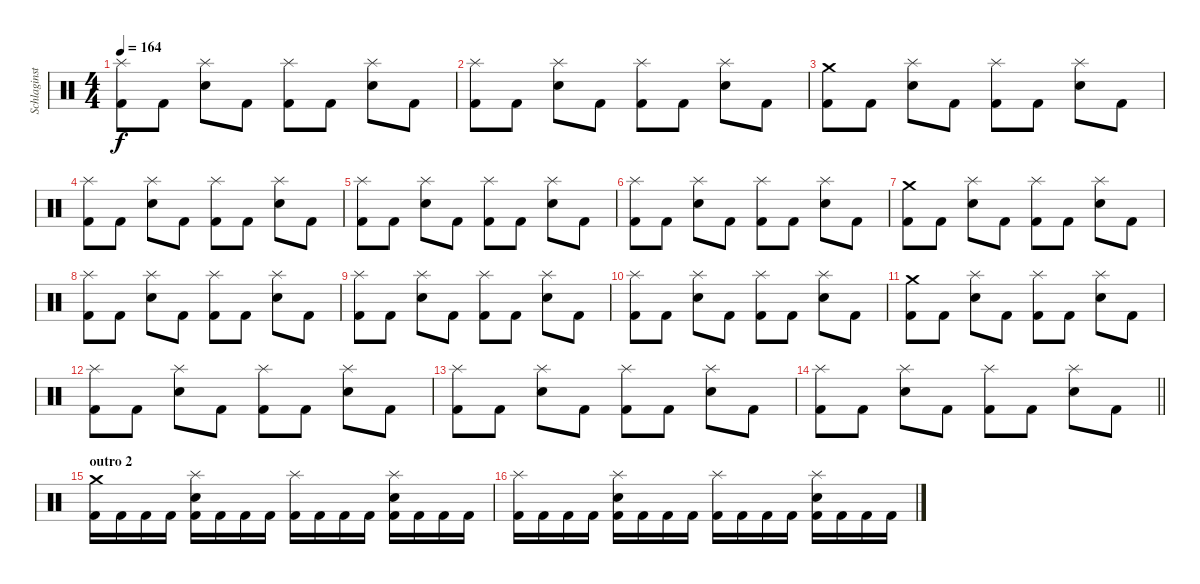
\track ("Schlaginstrumente - Auswahl" "Schlaginst") {instrument percussion}
\staff {score}
\articulation defaults
\ts (4 4)
\tempo 164
\clef neutral
\ks c
("Splash (hit)" "Kick (hit) 2").8{dy f} "Kick (hit) 2".8 ("Splash (hit)" "Electric Snare (hit)").8 "Kick (hit) 2".8 ("Splash (hit)" "Kick (hit) 2").8 "Kick (hit) 2".8 ("Splash (hit)" "Electric Snare (hit)").8 "Kick (hit) 2".8 |
("Splash (hit)" "Kick (hit) 2").8 "Kick (hit) 2".8 ("Splash (hit)" "Electric Snare (hit)").8 "Kick (hit) 2".8 ("Splash (hit)" "Kick (hit) 2").8 "Kick (hit) 2".8 ("Splash (hit)" "Electric Snare (hit)").8 "Kick (hit) 2".8 |
("Crash medium (hit)" "Kick (hit) 2").8 "Kick (hit) 2".8 ("Splash (hit)" "Electric Snare (hit)").8 "Kick (hit) 2".8 ("Splash (hit)" "Kick (hit) 2").8 "Kick (hit) 2".8 ("Splash (hit)" "Electric Snare (hit)").8 "Kick (hit) 2".8 |
("Splash (hit)" "Kick (hit) 2").8 "Kick (hit) 2".8 ("Splash (hit)" "Electric Snare (hit)").8 "Kick (hit) 2".8 ("Splash (hit)" "Kick (hit) 2").8 "Kick (hit) 2".8 ("Splash (hit)" "Electric Snare (hit)").8 "Kick (hit) 2".8 |
("Splash (hit)" "Kick (hit) 2").8 "Kick (hit) 2".8 ("Splash (hit)" "Electric Snare (hit)").8 "Kick (hit) 2".8 ("Splash (hit)" "Kick (hit) 2").8 "Kick (hit) 2".8 ("Splash (hit)" "Electric Snare (hit)").8 "Kick (hit) 2".8 |
("Splash (hit)" "Kick (hit) 2").8 "Kick (hit) 2".8 ("Splash (hit)" "Electric Snare (hit)").8 "Kick (hit) 2".8 ("Splash (hit)" "Kick (hit) 2").8 "Kick (hit) 2".8 ("Splash (hit)" "Electric Snare (hit)").8 "Kick (hit) 2".8 |
("Crash medium (hit)" "Kick (hit) 2").8 "Kick (hit) 2".8 ("Splash (hit)" "Electric Snare (hit)").8 "Kick (hit) 2".8 ("Splash (hit)" "Kick (hit) 2").8 "Kick (hit) 2".8 ("Splash (hit)" "Electric Snare (hit)").8 "Kick (hit) 2".8 |
("Splash (hit)" "Kick (hit) 2").8 "Kick (hit) 2".8 ("Splash (hit)" "Electric Snare (hit)").8 "Kick (hit) 2".8 ("Splash (hit)" "Kick (hit) 2").8 "Kick (hit) 2".8 ("Splash (hit)" "Electric Snare (hit)").8 "Kick (hit) 2".8 |
("Splash (hit)" "Kick (hit) 2").8 "Kick (hit) 2".8 ("Splash (hit)" "Electric Snare (hit)").8 "Kick (hit) 2".8 ("Splash (hit)" "Kick (hit) 2").8 "Kick (hit) 2".8 ("Splash (hit)" "Electric Snare (hit)").8 "Kick (hit) 2".8 |
("Splash (hit)" "Kick (hit) 2").8 "Kick (hit) 2".8 ("Splash (hit)" "Electric Snare (hit)").8 "Kick (hit) 2".8 ("Splash (hit)" "Kick (hit) 2").8 "Kick (hit) 2".8 ("Splash (hit)" "Electric Snare (hit)").8 "Kick (hit) 2".8 |
("Crash medium (hit)" "Kick (hit) 2").8 "Kick (hit) 2".8 ("Splash (hit)" "Electric Snare (hit)").8 "Kick (hit) 2".8 ("Splash (hit)" "Kick (hit) 2").8 "Kick (hit) 2".8 ("Splash (hit)" "Electric Snare (hit)").8 "Kick (hit) 2".8 |
("Splash (hit)" "Kick (hit) 2").8 "Kick (hit) 2".8 ("Splash (hit)" "Electric Snare (hit)").8 "Kick (hit) 2".8 ("Splash (hit)" "Kick (hit) 2").8 "Kick (hit) 2".8 ("Splash (hit)" "Electric Snare (hit)").8 "Kick (hit) 2".8 |
("Splash (hit)" "Kick (hit) 2").8 "Kick (hit) 2".8 ("Splash (hit)" "Electric Snare (hit)").8 "Kick (hit) 2".8 ("Splash (hit)" "Kick (hit) 2").8 "Kick (hit) 2".8 ("Splash (hit)" "Electric Snare (hit)").8 "Kick (hit) 2".8 |
\barLineRight lightlight
("Splash (hit)" "Kick (hit) 2").8 "Kick (hit) 2".8 ("Splash (hit)" "Electric Snare (hit)").8 "Kick (hit) 2".8 ("Splash (hit)" "Kick (hit) 2").8 "Kick (hit) 2".8 ("Splash (hit)" "Electric Snare (hit)").8 "Kick (hit) 2".8 |
\section ("" "outro 2")
("Crash medium (hit)" "Kick (hit) 2").16 "Kick (hit) 2".16 "Kick (hit) 2".16 "Kick (hit) 2".16 ("Splash (hit)" "Electric Snare (hit)" "Kick (hit) 2").16 "Kick (hit) 2".16 "Kick (hit) 2".16 "Kick (hit) 2".16 ("Splash (hit)" "Kick (hit) 2").16 "Kick (hit) 2".16 "Kick (hit) 2".16 "Kick (hit) 2".16 ("Splash (hit)" "Electric Snare (hit)" "Kick (hit) 2").16 "Kick (hit) 2".16 "Kick (hit) 2".16 "Kick (hit) 2".16 |
("Splash (hit)" "Kick (hit) 2").16 "Kick (hit) 2".16 "Kick (hit) 2".16 "Kick (hit) 2".16 ("Splash (hit)" "Electric Snare (hit)" "Kick (hit) 2").16 "Kick (hit) 2".16 "Kick (hit) 2".16 "Kick (hit) 2".16 ("Splash (hit)" "Kick (hit) 2").16 "Kick (hit) 2".16 "Kick (hit) 2".16 "Kick (hit) 2".16 ("Splash (hit)" "Electric Snare (hit)" "Kick (hit) 2").16 "Kick (hit) 2".16 "Kick (hit) 2".16 "Kick (hit) 2".16
